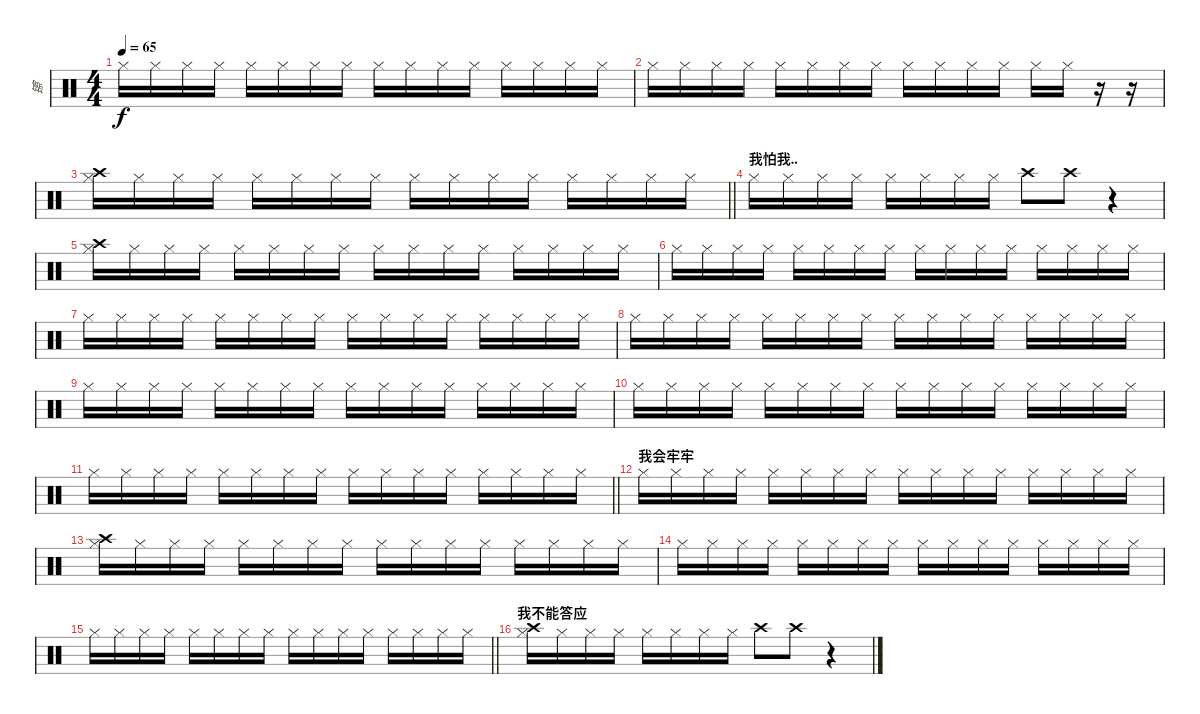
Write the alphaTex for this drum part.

\track ("镲" "镲") {instrument percussion}
\staff {score}
\articulation defaults
\ts (4 4)
\tempo 65
\clef neutral
\ks c "Hi-Hat (closed)".16{dy f} "Hi-Hat (closed)".16 "Hi-Hat (closed)".16 "Hi-Hat (closed)".16 "Hi-Hat (closed)".16 "Hi-Hat (closed)".16 "Hi-Hat (closed)".16 "Hi-Hat (closed)".16 "Hi-Hat (closed)".16 "Hi-Hat (closed)".16 "Hi-Hat (closed)".16 "Hi-Hat (closed)".16 "Hi-Hat (closed)".16 "Hi-Hat (closed)".16 "Hi-Hat (closed)".16 "Hi-Hat (closed)".16
|
"Hi-Hat (closed)".16 "Hi-Hat (closed)".16 "Hi-Hat (closed)".16 "Hi-Hat (closed)".16 "Hi-Hat (closed)".16 "Hi-Hat (closed)".16 "Hi-Hat (closed)".16 "Hi-Hat (closed)".16 "Hi-Hat (closed)".16 "Hi-Hat (closed)".16 "Hi-Hat (closed)".16 "Hi-Hat (closed)".16 "Hi-Hat (closed)".16 "Hi-Hat (closed)".16 r.16 r.16 |
\barLineRight lightlight
("Crash high (hit)" "Hi-Hat (closed)").16 "Hi-Hat (closed)".16 "Hi-Hat (closed)".16 "Hi-Hat (closed)".16 "Hi-Hat (closed)".16 "Hi-Hat (closed)".16 "Hi-Hat (closed)".16 "Hi-Hat (closed)".16 "Hi-Hat (closed)".16 "Hi-Hat (closed)".16 "Hi-Hat (closed)".16 "Hi-Hat (closed)".16 "Hi-Hat (closed)".16 "Hi-Hat (closed)".16 "Hi-Hat (closed)".16 "Hi-Hat (closed)".16 |
\section ("" "我怕我..")
"Hi-Hat (closed)".16 "Hi-Hat (closed)".16 "Hi-Hat (closed)".16 "Hi-Hat (closed)".16 "Hi-Hat (closed)".16 "Hi-Hat (closed)".16 "Hi-Hat (closed)".16 "Hi-Hat (closed)".16 "Crash high (hit)".8 "Crash high (hit)".8 r.4 |
("Crash high (hit)" "Hi-Hat (closed)").16 "Hi-Hat (closed)".16 "Hi-Hat (closed)".16 "Hi-Hat (closed)".16 "Hi-Hat (closed)".16 "Hi-Hat (closed)".16 "Hi-Hat (closed)".16 "Hi-Hat (closed)".16 "Hi-Hat (closed)".16 "Hi-Hat (closed)".16 "Hi-Hat (closed)".16 "Hi-Hat (closed)".16 "Hi-Hat (closed)".16 "Hi-Hat (closed)".16 "Hi-Hat (closed)".16 "Hi-Hat (closed)".16 |
"Hi-Hat (closed)".16 "Hi-Hat (closed)".16 "Hi-Hat (closed)".16 "Hi-Hat (closed)".16 "Hi-Hat (closed)".16 "Hi-Hat (closed)".16 "Hi-Hat (closed)".16 "Hi-Hat (closed)".16 "Hi-Hat (closed)".16 "Hi-Hat (closed)".16 "Hi-Hat (closed)".16 "Hi-Hat (closed)".16 "Hi-Hat (closed)".16 "Hi-Hat (closed)".16 "Hi-Hat (closed)".16 "Hi-Hat (closed)".16 |
"Hi-Hat (closed)".16 "Hi-Hat (closed)".16 "Hi-Hat (closed)".16 "Hi-Hat (closed)".16 "Hi-Hat (closed)".16 "Hi-Hat (closed)".16 "Hi-Hat (closed)".16 "Hi-Hat (closed)".16 "Hi-Hat (closed)".16 "Hi-Hat (closed)".16 "Hi-Hat (closed)".16 "Hi-Hat (closed)".16 "Hi-Hat (closed)".16 "Hi-Hat (closed)".16 "Hi-Hat (closed)".16 "Hi-Hat (closed)".16 |
"Hi-Hat (closed)".16 "Hi-Hat (closed)".16 "Hi-Hat (closed)".16 "Hi-Hat (closed)".16 "Hi-Hat (closed)".16 "Hi-Hat (closed)".16 "Hi-Hat (closed)".16 "Hi-Hat (closed)".16 "Hi-Hat (closed)".16 "Hi-Hat (closed)".16 "Hi-Hat (closed)".16 "Hi-Hat (closed)".16 "Hi-Hat (closed)".16 "Hi-Hat (closed)".16 "Hi-Hat (closed)".16 "Hi-Hat (closed)".16 |
"Hi-Hat (closed)".16 "Hi-Hat (closed)".16 "Hi-Hat (closed)".16 "Hi-Hat (closed)".16 "Hi-Hat (closed)".16 "Hi-Hat (closed)".16 "Hi-Hat (closed)".16 "Hi-Hat (closed)".16 "Hi-Hat (closed)".16 "Hi-Hat (closed)".16 "Hi-Hat (closed)".16 "Hi-Hat (closed)".16 "Hi-Hat (closed)".16 "Hi-Hat (closed)".16 "Hi-Hat (closed)".16 "Hi-Hat (closed)".16 |
"Hi-Hat (closed)".16 "Hi-Hat (closed)".16 "Hi-Hat (closed)".16 "Hi-Hat (closed)".16 "Hi-Hat (closed)".16 "Hi-Hat (closed)".16 "Hi-Hat (closed)".16 "Hi-Hat (closed)".16 "Hi-Hat (closed)".16 "Hi-Hat (closed)".16 "Hi-Hat (closed)".16 "Hi-Hat (closed)".16 "Hi-Hat (closed)".16 "Hi-Hat (closed)".16 "Hi-Hat (closed)".16 "Hi-Hat (closed)".16 |
\barLineRight lightlight "Hi-Hat (closed)".16 "Hi-Hat (closed)".16 "Hi-Hat (closed)".16 "Hi-Hat (closed)".16 "Hi-Hat (closed)".16 "Hi-Hat (closed)".16 "Hi-Hat (closed)".16 "Hi-Hat (closed)".16 "Hi-Hat (closed)".16 "Hi-Hat (closed)".16 "Hi-Hat (closed)".16 "Hi-Hat (closed)".16 "Hi-Hat (closed)".16 "Hi-Hat (closed)".16 "Hi-Hat (closed)".16 "Hi-Hat (closed)".16
|
\section ("" "我会牢牢")
"Hi-Hat (closed)".16 "Hi-Hat (closed)".16 "Hi-Hat (closed)".16 "Hi-Hat (closed)".16 "Hi-Hat (closed)".16 "Hi-Hat (closed)".16 "Hi-Hat (closed)".16 "Hi-Hat (closed)".16 "Hi-Hat (closed)".16 "Hi-Hat (closed)".16 "Hi-Hat (closed)".16 "Hi-Hat (closed)".16 "Hi-Hat (closed)".16 "Hi-Hat (closed)".16 "Hi-Hat (closed)".16 "Hi-Hat (closed)".16 |
("Crash high (hit)" "Hi-Hat (closed)").16 "Hi-Hat (closed)".16 "Hi-Hat (closed)".16 "Hi-Hat (closed)".16 "Hi-Hat (closed)".16 "Hi-Hat (closed)".16 "Hi-Hat (closed)".16 "Hi-Hat (closed)".16 "Hi-Hat (closed)".16 "Hi-Hat (closed)".16 "Hi-Hat (closed)".16 "Hi-Hat (closed)".16 "Hi-Hat (closed)".16 "Hi-Hat (closed)".16 "Hi-Hat (closed)".16 "Hi-Hat (closed)".16 |
"Hi-Hat (closed)".16 "Hi-Hat (closed)".16 "Hi-Hat (closed)".16 "Hi-Hat (closed)".16 "Hi-Hat (closed)".16 "Hi-Hat (closed)".16 "Hi-Hat (closed)".16 "Hi-Hat (closed)".16 "Hi-Hat (closed)".16 "Hi-Hat (closed)".16 "Hi-Hat (closed)".16 "Hi-Hat (closed)".16 "Hi-Hat (closed)".16 "Hi-Hat (closed)".16 "Hi-Hat (closed)".16 "Hi-Hat (closed)".16 |
\barLineRight lightlight "Hi-Hat (closed)".16 "Hi-Hat (closed)".16 "Hi-Hat (closed)".16 "Hi-Hat (closed)".16 "Hi-Hat (closed)".16 "Hi-Hat (closed)".16 "Hi-Hat (closed)".16 "Hi-Hat (closed)".16 "Hi-Hat (closed)".16 "Hi-Hat (closed)".16 "Hi-Hat (closed)".16 "Hi-Hat (closed)".16 "Hi-Hat (closed)".16 "Hi-Hat (closed)".16 "Hi-Hat (closed)".16 "Hi-Hat (closed)".16
|
\section ("" "我不能答应")
("Crash high (hit)" "Hi-Hat (closed)").16 "Hi-Hat (closed)".16 "Hi-Hat (closed)".16 "Hi-Hat (closed)".16 "Hi-Hat (closed)".16 "Hi-Hat (closed)".16 "Hi-Hat (closed)".16 "Hi-Hat (closed)".16 "Crash high (hit)".8 "Crash high (hit)".8 r.4
